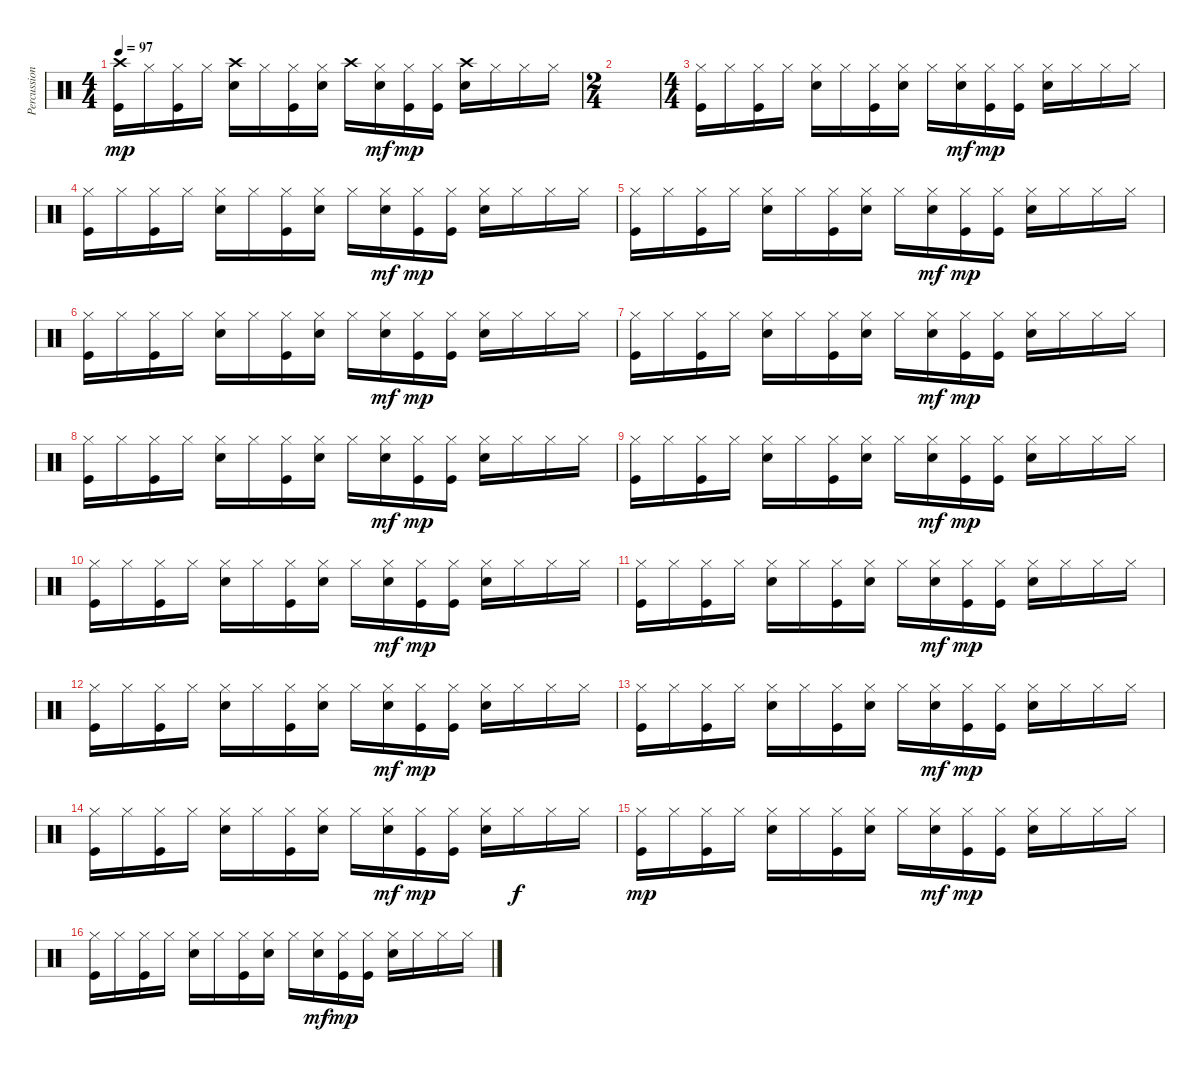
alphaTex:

\track ("Percussions" "Percussion") {instrument percussion}
\staff {score}
\articulation defaults
\ts (4 4)
\tempo 97
\clef neutral
\ks c
("Crash high (hit)" "Kick (hit)").16{dy mp} "Hi-Hat (closed)".16 ("Hi-Hat (closed)" "Kick (hit)").16 "Hi-Hat (closed)".16 ("Crash high (hit)" "Electric Snare (hit)").16 "Hi-Hat (closed)".16 ("Hi-Hat (closed)" "Kick (hit)").16 ("Hi-Hat (closed)" "Electric Snare (hit)"{tr (40 64)}).16 "Crash high (hit)".16 ("Hi-Hat (closed)" "Electric Snare (hit)").16{dy mf} ("Hi-Hat (closed)" "Kick (hit)").16{dy mp} ("Hi-Hat (closed)" "Kick (hit)").16 ("Crash high (hit)" "Electric Snare (hit)").16 "Hi-Hat (closed)".16 "Hi-Hat (closed)".16 "Hi-Hat (closed)".16 |
\ts (2 4)
|
\ts (4 4)
("Hi-Hat (closed)" "Kick (hit)").16 "Hi-Hat (closed)".16 ("Hi-Hat (closed)" "Kick (hit)").16 "Hi-Hat (closed)".16 ("Hi-Hat (closed)" "Electric Snare (hit)").16 "Hi-Hat (closed)".16 ("Hi-Hat (closed)" "Kick (hit)").16 ("Hi-Hat (closed)" "Electric Snare (hit)"{tr (40 64)}).16 "Hi-Hat (closed)".16 ("Hi-Hat (closed)" "Electric Snare (hit)").16{dy mf} ("Hi-Hat (closed)" "Kick (hit)").16{dy mp} ("Hi-Hat (closed)" "Kick (hit)").16 ("Hi-Hat (closed)" "Electric Snare (hit)").16 "Hi-Hat (closed)".16 "Hi-Hat (closed)".16 "Hi-Hat (closed)".16 |
("Hi-Hat (closed)" "Kick (hit)").16 "Hi-Hat (closed)".16 ("Hi-Hat (closed)" "Kick (hit)").16 "Hi-Hat (closed)".16 ("Hi-Hat (closed)" "Electric Snare (hit)").16 "Hi-Hat (closed)".16 ("Hi-Hat (closed)" "Kick (hit)").16 ("Hi-Hat (closed)" "Electric Snare (hit)"{tr (40 64)}).16 "Hi-Hat (closed)".16 ("Hi-Hat (closed)" "Electric Snare (hit)").16{dy mf} ("Hi-Hat (closed)" "Kick (hit)").16{dy mp} ("Hi-Hat (closed)" "Kick (hit)").16 ("Hi-Hat (closed)" "Electric Snare (hit)").16 "Hi-Hat (closed)".16 "Hi-Hat (closed)".16 "Hi-Hat (closed)".16 |
("Hi-Hat (closed)" "Kick (hit)").16 "Hi-Hat (closed)".16 ("Hi-Hat (closed)" "Kick (hit)").16 "Hi-Hat (closed)".16 ("Hi-Hat (closed)" "Electric Snare (hit)").16 "Hi-Hat (closed)".16 ("Hi-Hat (closed)" "Kick (hit)").16 ("Hi-Hat (closed)" "Electric Snare (hit)"{tr (40 64)}).16 "Hi-Hat (closed)".16 ("Hi-Hat (closed)" "Electric Snare (hit)").16{dy mf} ("Hi-Hat (closed)" "Kick (hit)").16{dy mp} ("Hi-Hat (closed)" "Kick (hit)").16 ("Hi-Hat (closed)" "Electric Snare (hit)").16 "Hi-Hat (closed)".16 "Hi-Hat (closed)".16 "Hi-Hat (closed)".16 |
("Hi-Hat (closed)" "Kick (hit)").16 "Hi-Hat (closed)".16 ("Hi-Hat (closed)" "Kick (hit)").16 "Hi-Hat (closed)".16 ("Hi-Hat (closed)" "Electric Snare (hit)").16 "Hi-Hat (closed)".16 ("Hi-Hat (closed)" "Kick (hit)").16 ("Hi-Hat (closed)" "Electric Snare (hit)"{tr (40 64)}).16 "Hi-Hat (closed)".16 ("Hi-Hat (closed)" "Electric Snare (hit)").16{dy mf} ("Hi-Hat (closed)" "Kick (hit)").16{dy mp} ("Hi-Hat (closed)" "Kick (hit)").16 ("Hi-Hat (closed)" "Electric Snare (hit)").16 "Hi-Hat (closed)".16 "Hi-Hat (closed)".16 "Hi-Hat (closed)".16 |
("Hi-Hat (closed)" "Kick (hit)").16 "Hi-Hat (closed)".16 ("Hi-Hat (closed)" "Kick (hit)").16 "Hi-Hat (closed)".16 ("Hi-Hat (closed)" "Electric Snare (hit)").16 "Hi-Hat (closed)".16 ("Hi-Hat (closed)" "Kick (hit)").16 ("Hi-Hat (closed)" "Electric Snare (hit)"{tr (40 64)}).16 "Hi-Hat (closed)".16 ("Hi-Hat (closed)" "Electric Snare (hit)").16{dy mf} ("Hi-Hat (closed)" "Kick (hit)").16{dy mp} ("Hi-Hat (closed)" "Kick (hit)").16 ("Hi-Hat (closed)" "Electric Snare (hit)").16 "Hi-Hat (closed)".16 "Hi-Hat (closed)".16 "Hi-Hat (closed)".16 |
("Hi-Hat (closed)" "Kick (hit)").16 "Hi-Hat (closed)".16 ("Hi-Hat (closed)" "Kick (hit)").16 "Hi-Hat (closed)".16 ("Hi-Hat (closed)" "Electric Snare (hit)").16 "Hi-Hat (closed)".16 ("Hi-Hat (closed)" "Kick (hit)").16 ("Hi-Hat (closed)" "Electric Snare (hit)"{tr (40 64)}).16 "Hi-Hat (closed)".16 ("Hi-Hat (closed)" "Electric Snare (hit)").16{dy mf} ("Hi-Hat (closed)" "Kick (hit)").16{dy mp} ("Hi-Hat (closed)" "Kick (hit)").16 ("Hi-Hat (closed)" "Electric Snare (hit)").16 "Hi-Hat (closed)".16 "Hi-Hat (closed)".16 "Hi-Hat (closed)".16 |
("Hi-Hat (closed)" "Kick (hit)").16 "Hi-Hat (closed)".16 ("Hi-Hat (closed)" "Kick (hit)").16 "Hi-Hat (closed)".16 ("Hi-Hat (closed)" "Electric Snare (hit)").16 "Hi-Hat (closed)".16 ("Hi-Hat (closed)" "Kick (hit)").16 ("Hi-Hat (closed)" "Electric Snare (hit)"{tr (40 64)}).16 "Hi-Hat (closed)".16 ("Hi-Hat (closed)" "Electric Snare (hit)").16{dy mf} ("Hi-Hat (closed)" "Kick (hit)").16{dy mp} ("Hi-Hat (closed)" "Kick (hit)").16 ("Hi-Hat (closed)" "Electric Snare (hit)").16 "Hi-Hat (closed)".16 "Hi-Hat (closed)".16 "Hi-Hat (closed)".16 |
("Hi-Hat (closed)" "Kick (hit)").16 "Hi-Hat (closed)".16 ("Hi-Hat (closed)" "Kick (hit)").16 "Hi-Hat (closed)".16 ("Hi-Hat (closed)" "Electric Snare (hit)").16 "Hi-Hat (closed)".16 ("Hi-Hat (closed)" "Kick (hit)").16 ("Hi-Hat (closed)" "Electric Snare (hit)"{tr (40 64)}).16 "Hi-Hat (closed)".16 ("Hi-Hat (closed)" "Electric Snare (hit)").16{dy mf} ("Hi-Hat (closed)" "Kick (hit)").16{dy mp} ("Hi-Hat (closed)" "Kick (hit)").16 ("Hi-Hat (closed)" "Electric Snare (hit)").16 "Hi-Hat (closed)".16 "Hi-Hat (closed)".16 "Hi-Hat (closed)".16 |
("Hi-Hat (closed)" "Kick (hit)").16 "Hi-Hat (closed)".16 ("Hi-Hat (closed)" "Kick (hit)").16 "Hi-Hat (closed)".16 ("Hi-Hat (closed)" "Electric Snare (hit)").16 "Hi-Hat (closed)".16 ("Hi-Hat (closed)" "Kick (hit)").16 ("Hi-Hat (closed)" "Electric Snare (hit)"{tr (40 64)}).16 "Hi-Hat (closed)".16 ("Hi-Hat (closed)" "Electric Snare (hit)").16{dy mf} ("Hi-Hat (closed)" "Kick (hit)").16{dy mp} ("Hi-Hat (closed)" "Kick (hit)").16 ("Hi-Hat (closed)" "Electric Snare (hit)").16 "Hi-Hat (closed)".16 "Hi-Hat (closed)".16 "Hi-Hat (closed)".16 |
("Hi-Hat (closed)" "Kick (hit)").16 "Hi-Hat (closed)".16 ("Hi-Hat (closed)" "Kick (hit)").16 "Hi-Hat (closed)".16 ("Hi-Hat (closed)" "Electric Snare (hit)").16 "Hi-Hat (closed)".16 ("Hi-Hat (closed)" "Kick (hit)").16 ("Hi-Hat (closed)" "Electric Snare (hit)"{tr (40 64)}).16 "Hi-Hat (closed)".16 ("Hi-Hat (closed)" "Electric Snare (hit)").16{dy mf} ("Hi-Hat (closed)" "Kick (hit)").16{dy mp} ("Hi-Hat (closed)" "Kick (hit)").16 ("Hi-Hat (closed)" "Electric Snare (hit)").16 "Hi-Hat (closed)".16 "Hi-Hat (closed)".16 "Hi-Hat (closed)".16 |
("Hi-Hat (closed)" "Kick (hit)").16 "Hi-Hat (closed)".16 ("Hi-Hat (closed)" "Kick (hit)").16 "Hi-Hat (closed)".16 ("Hi-Hat (closed)" "Electric Snare (hit)").16 "Hi-Hat (closed)".16 ("Hi-Hat (closed)" "Kick (hit)").16 ("Hi-Hat (closed)" "Electric Snare (hit)"{tr (40 64)}).16 "Hi-Hat (closed)".16 ("Hi-Hat (closed)" "Electric Snare (hit)").16{dy mf} ("Hi-Hat (closed)" "Kick (hit)").16{dy mp} ("Hi-Hat (closed)" "Kick (hit)").16 ("Hi-Hat (closed)" "Electric Snare (hit)").16 "Hi-Hat (closed)".16 "Hi-Hat (closed)".16 "Hi-Hat (closed)".16 |
("Hi-Hat (closed)" "Kick (hit)").16 "Hi-Hat (closed)".16 ("Hi-Hat (closed)" "Kick (hit)").16 "Hi-Hat (closed)".16 ("Hi-Hat (closed)" "Electric Snare (hit)").16 "Hi-Hat (closed)".16 ("Hi-Hat (closed)" "Kick (hit)").16 ("Hi-Hat (closed)" "Electric Snare (hit)"{tr (40 64)}).16 "Hi-Hat (closed)".16 ("Hi-Hat (closed)" "Electric Snare (hit)").16{dy mf} ("Hi-Hat (closed)" "Kick (hit)").16{dy mp} ("Hi-Hat (closed)" "Kick (hit)").16 ("Hi-Hat (closed)" "Electric Snare (hit)").16 "Hi-Hat (closed)".16{dy f} "Hi-Hat (closed)".16 "Hi-Hat (closed)".16 |
("Hi-Hat (closed)" "Kick (hit)").16{dy mp} "Hi-Hat (closed)".16 ("Hi-Hat (closed)" "Kick (hit)").16 "Hi-Hat (closed)".16 ("Hi-Hat (closed)" "Electric Snare (hit)").16 "Hi-Hat (closed)".16 ("Hi-Hat (closed)" "Kick (hit)").16 ("Hi-Hat (closed)" "Electric Snare (hit)"{tr (40 64)}).16 "Hi-Hat (closed)".16 ("Hi-Hat (closed)" "Electric Snare (hit)").16{dy mf} ("Hi-Hat (closed)" "Kick (hit)").16{dy mp} ("Hi-Hat (closed)" "Kick (hit)").16 ("Hi-Hat (closed)" "Electric Snare (hit)").16 "Hi-Hat (closed)".16 "Hi-Hat (closed)".16 "Hi-Hat (closed)".16 |
("Hi-Hat (closed)" "Kick (hit)").16 "Hi-Hat (closed)".16 ("Hi-Hat (closed)" "Kick (hit)").16 "Hi-Hat (closed)".16 ("Hi-Hat (closed)" "Electric Snare (hit)").16 "Hi-Hat (closed)".16 ("Hi-Hat (closed)" "Kick (hit)").16 ("Hi-Hat (closed)" "Electric Snare (hit)"{tr (40 64)}).16 "Hi-Hat (closed)".16 ("Hi-Hat (closed)" "Electric Snare (hit)").16{dy mf} ("Hi-Hat (closed)" "Kick (hit)").16{dy mp} ("Hi-Hat (closed)" "Kick (hit)").16 ("Hi-Hat (closed)" "Electric Snare (hit)").16 "Hi-Hat (closed)".16 "Hi-Hat (closed)".16 "Hi-Hat (closed)".16
